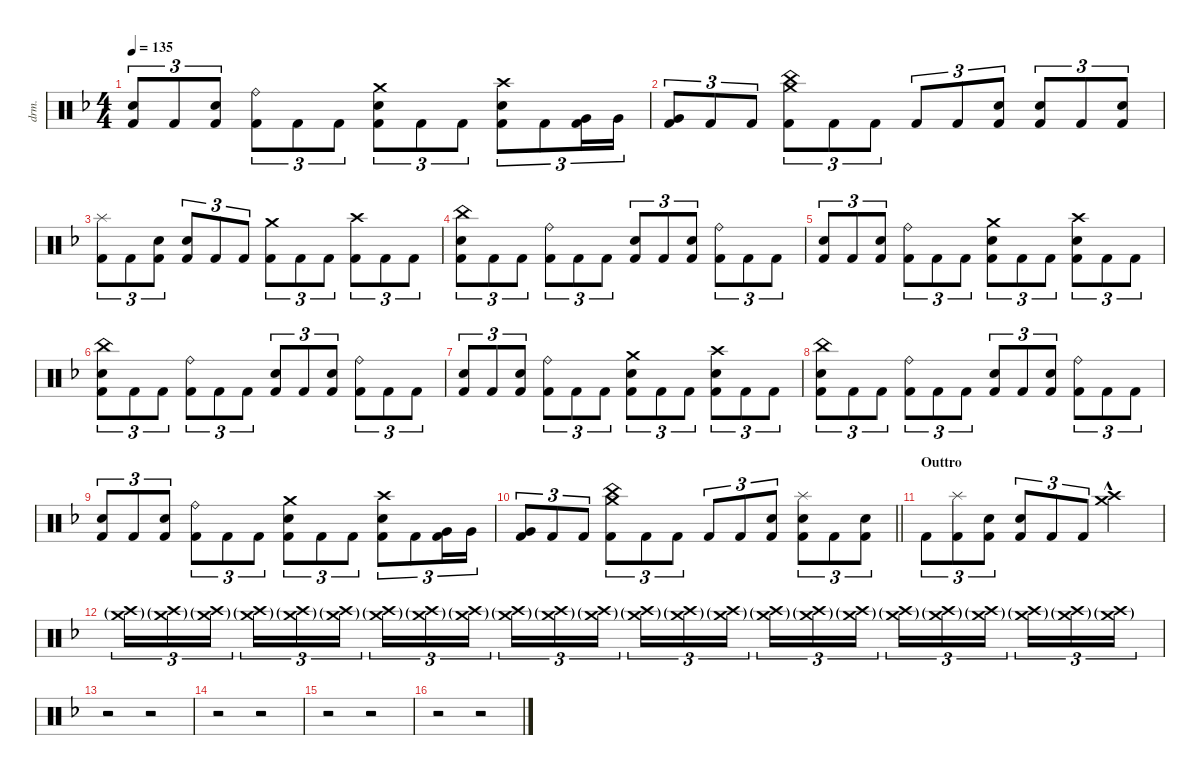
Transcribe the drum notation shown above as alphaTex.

\defaultSystemsLayout 4
\hideDynamics
\bracketExtendMode nobrackets
\otherSystemsTrackNameOrientation horizontal
\track ("Drums" "drm.") {instrument percussion}
\staff {score}
\articulation defaults
\ts (4 4)
\tempo 135
\clef neutral
\ks dminor
("Snare (hit) 2"{acc forcenatural} "Kick (hit) 2"{acc forcenatural}).8{tu (3 2) dy f} "Kick (hit) 2"{acc forcenatural}.8{tu (3 2)} ("Snare (hit) 2"{acc forcenatural} "Kick (hit) 2"{acc forcenatural}).8{tu (3 2)} ("Ride (bell)"{acc forcenatural} "Kick (hit) 2"{acc forcenatural}).8{tu (3 2)} "Kick (hit) 2"{acc forcenatural}.8{tu (3 2)} "Kick (hit) 2"{acc forcenatural}.8{tu (3 2)} ("Crash medium (hit)"{acc forcenatural} "Snare (hit) 2"{acc forcenatural} "Kick (hit) 2"{acc forcenatural}).8{tu (3 2)} "Kick (hit) 2"{acc forcenatural}.8{tu (3 2)} "Kick (hit) 2"{acc forcenatural}.8{tu (3 2)} ("Crash high (hit)"{acc forcenatural} "Snare (hit) 2"{acc forcenatural} "Kick (hit) 2"{acc forcenatural}).8{tu (3 2)} "Kick (hit) 2"{acc forcenatural}.8{tu (3 2)} ("Very Low Tom (hit)"{acc forcenatural} "Kick (hit) 2"{acc forcenatural}).16{tu (3 2)} "Very Low Tom (hit)"{acc forcenatural}.16{tu (3 2)} |
("Very Low Tom (hit)"{acc forcenatural} "Kick (hit) 2"{acc forcenatural}).8{tu (3 2)} "Kick (hit) 2"{acc forcenatural}.8{tu (3 2)} "Kick (hit) 2"{acc forcenatural}.8{tu (3 2)} ("China (hit)"{acc forcenatural} "Crash medium (hit)"{acc forcenatural} "Kick (hit) 2"{acc forcenatural}).8{tu (3 2)} "Kick (hit) 2"{acc forcenatural}.8{tu (3 2)} "Kick (hit) 2"{acc forcenatural}.8{tu (3 2)} "Kick (hit) 2"{acc forcenatural}.8{tu (3 2)} "Kick (hit) 2"{acc forcenatural}.8{tu (3 2)} ("Snare (hit) 2"{acc forcenatural} "Kick (hit) 2"{acc forcenatural}).8{tu (3 2)} ("Snare (hit) 2"{acc forcenatural} "Kick (hit) 2"{acc forcenatural}).8{tu (3 2)} "Kick (hit) 2"{acc forcenatural}.8{tu (3 2)} ("Snare (hit) 2"{acc forcenatural} "Kick (hit) 2"{acc forcenatural}).8{tu (3 2)} |
("Splash (hit)"{acc forcenatural} "Kick (hit) 2"{acc forcenatural}).8{tu (3 2)} "Kick (hit) 2"{acc forcenatural}.8{tu (3 2)} ("Snare (hit) 2"{acc forcenatural} "Kick (hit) 2"{acc forcenatural}).8{tu (3 2)} ("Snare (hit) 2"{acc forcenatural} "Kick (hit) 2"{acc forcenatural}).8{tu (3 2)} "Kick (hit) 2"{acc forcenatural}.8{tu (3 2)} "Kick (hit) 2"{acc forcenatural}.8{tu (3 2)} ("Crash medium (hit)"{acc forcenatural} "Kick (hit) 2"{acc forcenatural}).8{tu (3 2)} "Kick (hit) 2"{acc forcenatural}.8{tu (3 2)} "Kick (hit) 2"{acc forcenatural}.8{tu (3 2)} ("Crash high (hit)"{acc forcenatural} "Kick (hit) 2"{acc forcenatural}).8{tu (3 2)} "Kick (hit) 2"{acc forcenatural}.8{tu (3 2)} "Kick (hit) 2"{acc forcenatural}.8{tu (3 2)} |
("China (hit)"{acc forcenatural} "Snare (hit) 2"{acc forcenatural} "Kick (hit) 2"{acc forcenatural}).8{tu (3 2)} "Kick (hit) 2"{acc forcenatural}.8{tu (3 2)} "Kick (hit) 2"{acc forcenatural}.8{tu (3 2)} ("Ride (bell)"{acc forcenatural} "Kick (hit) 2"{acc forcenatural}).8{tu (3 2)} "Kick (hit) 2"{acc forcenatural}.8{tu (3 2)} "Kick (hit) 2"{acc forcenatural}.8{tu (3 2)} ("Snare (hit) 2"{acc forcenatural} "Kick (hit) 2"{acc forcenatural}).8{tu (3 2)} "Kick (hit) 2"{acc forcenatural}.8{tu (3 2)} ("Snare (hit) 2"{acc forcenatural} "Kick (hit) 2"{acc forcenatural}).8{tu (3 2)} ("Ride (bell)"{acc forcenatural} "Kick (hit) 2"{acc forcenatural}).8{tu (3 2)} "Kick (hit) 2"{acc forcenatural}.8{tu (3 2)} "Kick (hit) 2"{acc forcenatural}.8{tu (3 2)} |
("Snare (hit) 2"{acc forcenatural} "Kick (hit) 2"{acc forcenatural}).8{tu (3 2)} "Kick (hit) 2"{acc forcenatural}.8{tu (3 2)} ("Snare (hit) 2"{acc forcenatural} "Kick (hit) 2"{acc forcenatural}).8{tu (3 2)} ("Ride (bell)"{acc forcenatural} "Kick (hit) 2"{acc forcenatural}).8{tu (3 2)} "Kick (hit) 2"{acc forcenatural}.8{tu (3 2)} "Kick (hit) 2"{acc forcenatural}.8{tu (3 2)} ("Crash medium (hit)"{acc forcenatural} "Snare (hit) 2"{acc forcenatural} "Kick (hit) 2"{acc forcenatural}).8{tu (3 2)} "Kick (hit) 2"{acc forcenatural}.8{tu (3 2)} "Kick (hit) 2"{acc forcenatural}.8{tu (3 2)} ("Crash high (hit)"{acc forcenatural} "Snare (hit) 2"{acc forcenatural} "Kick (hit) 2"{acc forcenatural}).8{tu (3 2)} "Kick (hit) 2"{acc forcenatural}.8{tu (3 2)} "Kick (hit) 2"{acc forcenatural}.8{tu (3 2)} |
("China (hit)"{acc forcenatural} "Snare (hit) 2"{acc forcenatural} "Kick (hit) 2"{acc forcenatural}).8{tu (3 2)} "Kick (hit) 2"{acc forcenatural}.8{tu (3 2)} "Kick (hit) 2"{acc forcenatural}.8{tu (3 2)} ("Ride (bell)"{acc forcenatural} "Kick (hit) 2"{acc forcenatural}).8{tu (3 2)} "Kick (hit) 2"{acc forcenatural}.8{tu (3 2)} "Kick (hit) 2"{acc forcenatural}.8{tu (3 2)} ("Snare (hit) 2"{acc forcenatural} "Kick (hit) 2"{acc forcenatural}).8{tu (3 2)} "Kick (hit) 2"{acc forcenatural}.8{tu (3 2)} ("Snare (hit) 2"{acc forcenatural} "Kick (hit) 2"{acc forcenatural}).8{tu (3 2)} ("Ride (bell)"{acc forcenatural} "Kick (hit) 2"{acc forcenatural}).8{tu (3 2)} "Kick (hit) 2"{acc forcenatural}.8{tu (3 2)} "Kick (hit) 2"{acc forcenatural}.8{tu (3 2)} |
("Snare (hit) 2"{acc forcenatural} "Kick (hit) 2"{acc forcenatural}).8{tu (3 2)} "Kick (hit) 2"{acc forcenatural}.8{tu (3 2)} ("Snare (hit) 2"{acc forcenatural} "Kick (hit) 2"{acc forcenatural}).8{tu (3 2)} ("Ride (bell)"{acc forcenatural} "Kick (hit) 2"{acc forcenatural}).8{tu (3 2)} "Kick (hit) 2"{acc forcenatural}.8{tu (3 2)} "Kick (hit) 2"{acc forcenatural}.8{tu (3 2)} ("Crash medium (hit)"{acc forcenatural} "Snare (hit) 2"{acc forcenatural} "Kick (hit) 2"{acc forcenatural}).8{tu (3 2)} "Kick (hit) 2"{acc forcenatural}.8{tu (3 2)} "Kick (hit) 2"{acc forcenatural}.8{tu (3 2)} ("Crash high (hit)"{acc forcenatural} "Snare (hit) 2"{acc forcenatural} "Kick (hit) 2"{acc forcenatural}).8{tu (3 2)} "Kick (hit) 2"{acc forcenatural}.8{tu (3 2)} "Kick (hit) 2"{acc forcenatural}.8{tu (3 2)} |
("China (hit)"{acc forcenatural} "Snare (hit) 2"{acc forcenatural} "Kick (hit) 2"{acc forcenatural}).8{tu (3 2)} "Kick (hit) 2"{acc forcenatural}.8{tu (3 2)} "Kick (hit) 2"{acc forcenatural}.8{tu (3 2)} ("Ride (bell)"{acc forcenatural} "Kick (hit) 2"{acc forcenatural}).8{tu (3 2)} "Kick (hit) 2"{acc forcenatural}.8{tu (3 2)} "Kick (hit) 2"{acc forcenatural}.8{tu (3 2)} ("Snare (hit) 2"{acc forcenatural} "Kick (hit) 2"{acc forcenatural}).8{tu (3 2)} "Kick (hit) 2"{acc forcenatural}.8{tu (3 2)} ("Snare (hit) 2"{acc forcenatural} "Kick (hit) 2"{acc forcenatural}).8{tu (3 2)} ("Ride (bell)"{acc forcenatural} "Kick (hit) 2"{acc forcenatural}).8{tu (3 2)} "Kick (hit) 2"{acc forcenatural}.8{tu (3 2)} "Kick (hit) 2"{acc forcenatural}.8{tu (3 2)} |
("Snare (hit) 2"{acc forcenatural} "Kick (hit) 2"{acc forcenatural}).8{tu (3 2)} "Kick (hit) 2"{acc forcenatural}.8{tu (3 2)} ("Snare (hit) 2"{acc forcenatural} "Kick (hit) 2"{acc forcenatural}).8{tu (3 2)} ("Ride (bell)"{acc forcenatural} "Kick (hit) 2"{acc forcenatural}).8{tu (3 2)} "Kick (hit) 2"{acc forcenatural}.8{tu (3 2)} "Kick (hit) 2"{acc forcenatural}.8{tu (3 2)} ("Crash medium (hit)"{acc forcenatural} "Snare (hit) 2"{acc forcenatural} "Kick (hit) 2"{acc forcenatural}).8{tu (3 2)} "Kick (hit) 2"{acc forcenatural}.8{tu (3 2)} "Kick (hit) 2"{acc forcenatural}.8{tu (3 2)} ("Crash high (hit)"{acc forcenatural} "Snare (hit) 2"{acc forcenatural} "Kick (hit) 2"{acc forcenatural}).8{tu (3 2)} "Kick (hit) 2"{acc forcenatural}.8{tu (3 2)} ("Very Low Tom (hit)"{acc forcenatural} "Kick (hit) 2"{acc forcenatural}).16{tu (3 2)} "Very Low Tom (hit)"{acc forcenatural}.16{tu (3 2)} |
\barLineRight lightlight
("Very Low Tom (hit)"{acc forcenatural} "Kick (hit) 2"{acc forcenatural}).8{tu (3 2)} "Kick (hit) 2"{acc forcenatural}.8{tu (3 2)} "Kick (hit) 2"{acc forcenatural}.8{tu (3 2)} ("China (hit)"{acc forcenatural} "Crash medium (hit)"{acc forcenatural} "Kick (hit) 2"{acc forcenatural}).8{tu (3 2)} "Kick (hit) 2"{acc forcenatural}.8{tu (3 2)} "Kick (hit) 2"{acc forcenatural}.8{tu (3 2)} "Kick (hit) 2"{acc forcenatural}.8{tu (3 2)} "Kick (hit) 2"{acc forcenatural}.8{tu (3 2)} ("Snare (hit) 2"{acc forcenatural} "Kick (hit) 2"{acc forcenatural}).8{tu (3 2)} ("Splash (hit)"{acc forcenatural} "Snare (hit) 2"{acc forcenatural} "Kick (hit) 2"{acc forcenatural}).8{tu (3 2)} "Kick (hit) 2"{acc forcenatural}.8{tu (3 2)} ("Snare (hit) 2"{acc forcenatural} "Kick (hit) 2"{acc forcenatural}).8{tu (3 2)} |
\section ("" "Outtro")
"Kick (hit) 2"{acc forcenatural}.8{tu (3 2)} ("Splash (hit)"{acc forcenatural} "Kick (hit) 2"{acc forcenatural}).8{tu (3 2)} ("Snare (hit) 2"{acc forcenatural} "Kick (hit) 2"{acc forcenatural}).8{tu (3 2)} ("Snare (hit) 2"{acc forcenatural} "Kick (hit) 2"{acc forcenatural}).8{tu (3 2)} "Kick (hit) 2"{acc forcenatural}.8{tu (3 2)} "Kick (hit) 2"{acc forcenatural}.8{tu (3 2)} ("Crash high (hit)"{hac acc forcenatural} "Crash medium (hit)"{hac acc forcenatural}).2 |
("Crash high (hit)"{g acc forcenatural} "Crash medium (hit)"{g acc forcenatural}).16{tu (3 2) dy mf} ("Crash high (hit)"{g acc forcenatural} "Crash medium (hit)"{g acc forcenatural}).16{tu (3 2)} ("Crash high (hit)"{g acc forcenatural} "Crash medium (hit)"{g acc forcenatural}).16{tu (3 2)} ("Crash high (hit)"{g acc forcenatural} "Crash medium (hit)"{g acc forcenatural}).16{tu (3 2)} ("Crash high (hit)"{g acc forcenatural} "Crash medium (hit)"{g acc forcenatural}).16{tu (3 2)} ("Crash high (hit)"{g acc forcenatural} "Crash medium (hit)"{g acc forcenatural}).16{tu (3 2)} ("Crash high (hit)"{g acc forcenatural} "Crash medium (hit)"{g acc forcenatural}).16{tu (3 2)} ("Crash high (hit)"{g acc forcenatural} "Crash medium (hit)"{g acc forcenatural}).16{tu (3 2)} ("Crash high (hit)"{g acc forcenatural} "Crash medium (hit)"{g acc forcenatural}).16{tu (3 2)} ("Crash high (hit)"{g acc forcenatural} "Crash medium (hit)"{g acc forcenatural}).16{tu (3 2)} ("Crash high (hit)"{g acc forcenatural} "Crash medium (hit)"{g acc forcenatural}).16{tu (3 2)} ("Crash high (hit)"{g acc forcenatural} "Crash medium (hit)"{g acc forcenatural}).16{tu (3 2)} ("Crash high (hit)"{g acc forcenatural} "Crash medium (hit)"{g acc forcenatural}).16{tu (3 2)} ("Crash high (hit)"{g acc forcenatural} "Crash medium (hit)"{g acc forcenatural}).16{tu (3 2)} ("Crash high (hit)"{g acc forcenatural} "Crash medium (hit)"{g acc forcenatural}).16{tu (3 2)} ("Crash high (hit)"{g acc forcenatural} "Crash medium (hit)"{g acc forcenatural}).16{tu (3 2)} ("Crash high (hit)"{g acc forcenatural} "Crash medium (hit)"{g acc forcenatural}).16{tu (3 2)} ("Crash high (hit)"{g acc forcenatural} "Crash medium (hit)"{g acc forcenatural}).16{tu (3 2)} ("Crash high (hit)"{g acc forcenatural} "Crash medium (hit)"{g acc forcenatural}).16{tu (3 2)} ("Crash high (hit)"{g acc forcenatural} "Crash medium (hit)"{g acc forcenatural}).16{tu (3 2)} ("Crash high (hit)"{g acc forcenatural} "Crash medium (hit)"{g acc forcenatural}).16{tu (3 2)} ("Crash high (hit)"{g acc forcenatural} "Crash medium (hit)"{g acc forcenatural}).16{tu (3 2)} ("Crash high (hit)"{g acc forcenatural} "Crash medium (hit)"{g acc forcenatural}).16{tu (3 2)} ("Crash high (hit)"{g acc forcenatural} "Crash medium (hit)"{g acc forcenatural}).16{tu (3 2)} |
r.2 r.2 |
r.2 r.2 |
r.2 r.2 |
r.2 r.2
